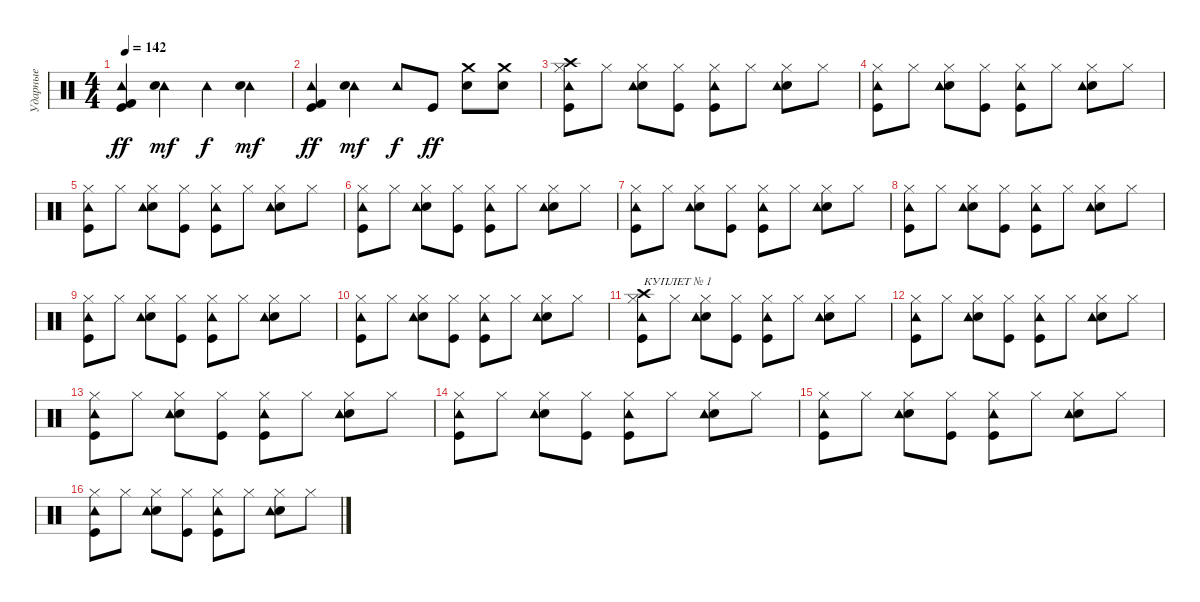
\track ("Ударные" "Ударные") {instrument percussion}
\staff {score}
\articulation defaults
\ts (4 4)
\tempo 142
\clef neutral
\ks c
("Tambourine (hit)" "Kick (hit) 2" "Kick (hit)").4{dy ff} ("Tambourine (hit)" "Snare (hit) 2").4{dy mf} "Tambourine (hit)".4{dy f} ("Tambourine (hit)" "Snare (hit) 2").4{dy mf} |
("Tambourine (hit)" "Kick (hit) 2" "Kick (hit)").4{dy ff} ("Tambourine (hit)" "Snare (hit) 2").4{dy mf} "Tambourine (hit)".8{dy f} "Kick (hit)".8{dy ff} ("Crash medium (hit)" "Electric Snare (hit)").8 ("Crash medium (hit)" "Electric Snare (hit)").8 |
("Crash high (hit)" "Hi-Hat (closed)" "Kick (hit)" "Tambourine (hit)").8 "Hi-Hat (closed)".8 ("Hi-Hat (closed)" "Electric Snare (hit)" "Tambourine (hit)").8 ("Hi-Hat (closed)" "Kick (hit)").8 ("Hi-Hat (closed)" "Tambourine (hit)" "Kick (hit)").8 "Hi-Hat (closed)".8 ("Hi-Hat (closed)" "Electric Snare (hit)" "Tambourine (hit)").8 "Hi-Hat (closed)".8 |
("Hi-Hat (closed)" "Kick (hit)" "Tambourine (hit)").8 "Hi-Hat (closed)".8 ("Hi-Hat (closed)" "Electric Snare (hit)" "Tambourine (hit)").8 ("Hi-Hat (closed)" "Kick (hit)").8 ("Hi-Hat (closed)" "Tambourine (hit)" "Kick (hit)").8 "Hi-Hat (closed)".8 ("Hi-Hat (closed)" "Electric Snare (hit)" "Tambourine (hit)").8 "Hi-Hat (closed)".8 |
("Hi-Hat (closed)" "Kick (hit)" "Tambourine (hit)").8 "Hi-Hat (closed)".8 ("Hi-Hat (closed)" "Electric Snare (hit)" "Tambourine (hit)").8 ("Hi-Hat (closed)" "Kick (hit)").8 ("Hi-Hat (closed)" "Tambourine (hit)" "Kick (hit)").8 "Hi-Hat (closed)".8 ("Hi-Hat (closed)" "Electric Snare (hit)" "Tambourine (hit)").8 "Hi-Hat (closed)".8 |
("Hi-Hat (closed)" "Kick (hit)" "Tambourine (hit)").8 "Hi-Hat (closed)".8 ("Hi-Hat (closed)" "Electric Snare (hit)" "Tambourine (hit)").8 ("Hi-Hat (closed)" "Kick (hit)").8 ("Hi-Hat (closed)" "Tambourine (hit)" "Kick (hit)").8 "Hi-Hat (closed)".8 ("Hi-Hat (closed)" "Electric Snare (hit)" "Tambourine (hit)").8 "Hi-Hat (closed)".8 |
("Hi-Hat (closed)" "Kick (hit)" "Tambourine (hit)").8 "Hi-Hat (closed)".8 ("Hi-Hat (closed)" "Electric Snare (hit)" "Tambourine (hit)").8 ("Hi-Hat (closed)" "Kick (hit)").8 ("Hi-Hat (closed)" "Tambourine (hit)" "Kick (hit)").8 "Hi-Hat (closed)".8 ("Hi-Hat (closed)" "Electric Snare (hit)" "Tambourine (hit)").8 "Hi-Hat (closed)".8 |
("Hi-Hat (closed)" "Kick (hit)" "Tambourine (hit)").8 "Hi-Hat (closed)".8 ("Hi-Hat (closed)" "Electric Snare (hit)" "Tambourine (hit)").8 ("Hi-Hat (closed)" "Kick (hit)").8 ("Hi-Hat (closed)" "Tambourine (hit)" "Kick (hit)").8 "Hi-Hat (closed)".8 ("Hi-Hat (closed)" "Electric Snare (hit)" "Tambourine (hit)").8 "Hi-Hat (closed)".8 |
("Hi-Hat (closed)" "Kick (hit)" "Tambourine (hit)").8 "Hi-Hat (closed)".8 ("Hi-Hat (closed)" "Electric Snare (hit)" "Tambourine (hit)").8 ("Hi-Hat (closed)" "Kick (hit)").8 ("Hi-Hat (closed)" "Tambourine (hit)" "Kick (hit)").8 "Hi-Hat (closed)".8 ("Hi-Hat (closed)" "Electric Snare (hit)" "Tambourine (hit)").8 "Hi-Hat (closed)".8 |
("Hi-Hat (closed)" "Kick (hit)" "Tambourine (hit)").8 "Hi-Hat (closed)".8 ("Hi-Hat (closed)" "Electric Snare (hit)" "Tambourine (hit)").8 ("Hi-Hat (closed)" "Kick (hit)").8 ("Hi-Hat (closed)" "Tambourine (hit)" "Kick (hit)").8 "Hi-Hat (closed)".8 ("Hi-Hat (closed)" "Electric Snare (hit)" "Tambourine (hit)").8 "Hi-Hat (closed)".8 |
("Crash high (hit)" "Hi-Hat (closed)" "Kick (hit)" "Tambourine (hit)").8{txt "КУПЛЕТ № 1"} "Hi-Hat (closed)".8 ("Hi-Hat (closed)" "Electric Snare (hit)" "Tambourine (hit)").8 ("Hi-Hat (closed)" "Kick (hit)").8 ("Hi-Hat (closed)" "Tambourine (hit)" "Kick (hit)").8 "Hi-Hat (closed)".8 ("Hi-Hat (closed)" "Electric Snare (hit)" "Tambourine (hit)").8 "Hi-Hat (closed)".8 |
("Hi-Hat (closed)" "Kick (hit)" "Tambourine (hit)").8 "Hi-Hat (closed)".8 ("Hi-Hat (closed)" "Electric Snare (hit)" "Tambourine (hit)").8 ("Hi-Hat (closed)" "Kick (hit)").8 ("Hi-Hat (closed)" "Tambourine (hit)" "Kick (hit)").8 "Hi-Hat (closed)".8 ("Hi-Hat (closed)" "Electric Snare (hit)" "Tambourine (hit)").8 "Hi-Hat (closed)".8 |
("Hi-Hat (closed)" "Kick (hit)" "Tambourine (hit)").8 "Hi-Hat (closed)".8 ("Hi-Hat (closed)" "Electric Snare (hit)" "Tambourine (hit)").8 ("Hi-Hat (closed)" "Kick (hit)").8 ("Hi-Hat (closed)" "Tambourine (hit)" "Kick (hit)").8 "Hi-Hat (closed)".8 ("Hi-Hat (closed)" "Electric Snare (hit)" "Tambourine (hit)").8 "Hi-Hat (closed)".8 |
("Hi-Hat (closed)" "Kick (hit)" "Tambourine (hit)").8 "Hi-Hat (closed)".8 ("Hi-Hat (closed)" "Electric Snare (hit)" "Tambourine (hit)").8 ("Hi-Hat (closed)" "Kick (hit)").8 ("Hi-Hat (closed)" "Tambourine (hit)" "Kick (hit)").8 "Hi-Hat (closed)".8 ("Hi-Hat (closed)" "Electric Snare (hit)" "Tambourine (hit)").8 "Hi-Hat (closed)".8 |
("Hi-Hat (closed)" "Kick (hit)" "Tambourine (hit)").8 "Hi-Hat (closed)".8 ("Hi-Hat (closed)" "Electric Snare (hit)" "Tambourine (hit)").8 ("Hi-Hat (closed)" "Kick (hit)").8 ("Hi-Hat (closed)" "Tambourine (hit)" "Kick (hit)").8 "Hi-Hat (closed)".8 ("Hi-Hat (closed)" "Electric Snare (hit)" "Tambourine (hit)").8 "Hi-Hat (closed)".8 |
("Hi-Hat (closed)" "Kick (hit)" "Tambourine (hit)").8 "Hi-Hat (closed)".8 ("Hi-Hat (closed)" "Electric Snare (hit)" "Tambourine (hit)").8 ("Hi-Hat (closed)" "Kick (hit)").8 ("Hi-Hat (closed)" "Tambourine (hit)" "Kick (hit)").8 "Hi-Hat (closed)".8 ("Hi-Hat (closed)" "Electric Snare (hit)" "Tambourine (hit)").8 "Hi-Hat (closed)".8
